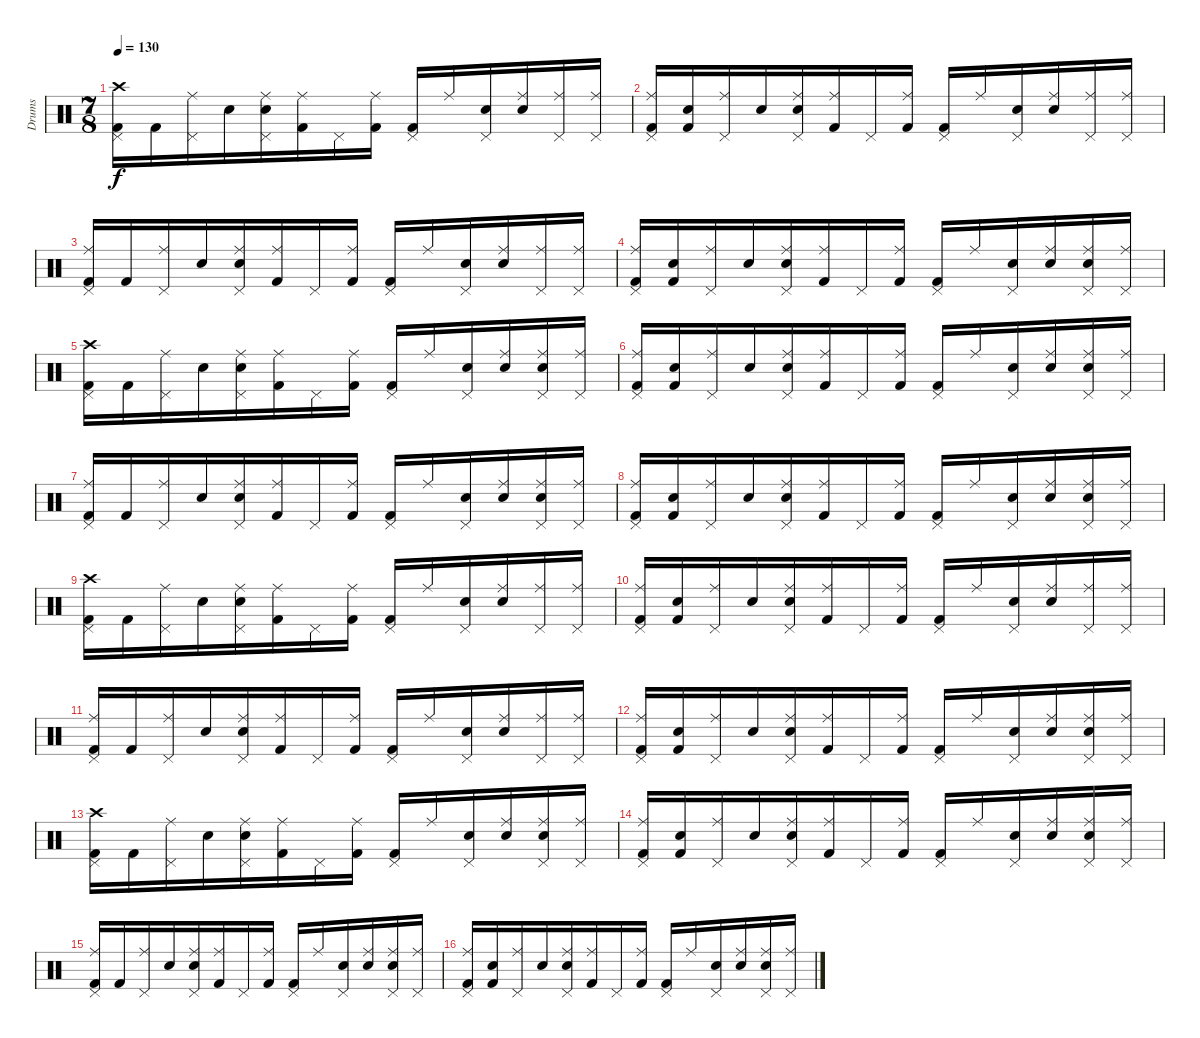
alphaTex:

\track ("Drums" "Drums") {instrument percussion}
\staff {score}
\articulation defaults
\ts (7 8)
\tempo 130
\clef neutral
\ks c
("Crash high (hit)" "Kick (hit) 2" "Pedal Hi-Hat (hit)").16{dy f} "Kick (hit) 2".16 ("Ride (middle)" "Pedal Hi-Hat (hit)").16 "Snare (hit) 2".16 ("Ride (middle)" "Electric Snare (hit)" "Pedal Hi-Hat (hit)").16 ("Ride (middle)" "Kick (hit) 2").16 "Pedal Hi-Hat (hit)".16 ("Ride (middle)" "Kick (hit) 2").16 ("Kick (hit) 2" "Pedal Hi-Hat (hit)").16 "Ride (middle)".16 ("Electric Snare (hit)" "Pedal Hi-Hat (hit)").16 ("Ride (middle)" "Electric Snare (hit)").16 ("Ride (middle)" "Pedal Hi-Hat (hit)").16 ("Ride (middle)" "Pedal Hi-Hat (hit)").16 |
("Ride (middle)" "Kick (hit) 2" "Pedal Hi-Hat (hit)").16 ("Electric Snare (hit)" "Kick (hit) 2").16 ("Ride (middle)" "Pedal Hi-Hat (hit)").16 "Snare (hit) 2".16 ("Ride (middle)" "Electric Snare (hit)" "Pedal Hi-Hat (hit)").16 ("Ride (middle)" "Kick (hit) 2").16 "Pedal Hi-Hat (hit)".16 ("Ride (middle)" "Kick (hit) 2").16 ("Kick (hit) 2" "Pedal Hi-Hat (hit)").16 "Ride (middle)".16 ("Electric Snare (hit)" "Pedal Hi-Hat (hit)").16 ("Ride (middle)" "Electric Snare (hit)").16 ("Ride (middle)" "Pedal Hi-Hat (hit)").16 ("Ride (middle)" "Pedal Hi-Hat (hit)").16 |
("Ride (middle)" "Kick (hit) 2" "Pedal Hi-Hat (hit)").16 "Kick (hit) 2".16 ("Ride (middle)" "Pedal Hi-Hat (hit)").16 "Snare (hit) 2".16 ("Ride (middle)" "Electric Snare (hit)" "Pedal Hi-Hat (hit)").16 ("Ride (middle)" "Kick (hit) 2").16 "Pedal Hi-Hat (hit)".16 ("Ride (middle)" "Kick (hit) 2").16 ("Kick (hit) 2" "Pedal Hi-Hat (hit)").16 "Ride (middle)".16 ("Electric Snare (hit)" "Pedal Hi-Hat (hit)").16 ("Ride (middle)" "Electric Snare (hit)").16 ("Ride (middle)" "Pedal Hi-Hat (hit)").16 ("Ride (middle)" "Pedal Hi-Hat (hit)").16 |
("Ride (middle)" "Kick (hit) 2" "Pedal Hi-Hat (hit)").16 ("Electric Snare (hit)" "Kick (hit) 2").16 ("Ride (middle)" "Pedal Hi-Hat (hit)").16 "Snare (hit) 2".16 ("Ride (middle)" "Electric Snare (hit)" "Pedal Hi-Hat (hit)").16 ("Ride (middle)" "Kick (hit) 2").16 "Pedal Hi-Hat (hit)".16 ("Ride (middle)" "Kick (hit) 2").16 ("Kick (hit) 2" "Pedal Hi-Hat (hit)").16 "Ride (middle)".16 ("Electric Snare (hit)" "Pedal Hi-Hat (hit)").16 ("Ride (middle)" "Electric Snare (hit)").16 ("Ride (middle)" "Snare (hit) 2" "Pedal Hi-Hat (hit)").16 ("Ride (middle)" "Pedal Hi-Hat (hit)").16 |
("Crash high (hit)" "Kick (hit) 2" "Pedal Hi-Hat (hit)").16 "Kick (hit) 2".16 ("Ride (middle)" "Pedal Hi-Hat (hit)").16 "Snare (hit) 2".16 ("Ride (middle)" "Electric Snare (hit)" "Pedal Hi-Hat (hit)").16 ("Ride (middle)" "Kick (hit) 2").16 "Pedal Hi-Hat (hit)".16 ("Ride (middle)" "Kick (hit) 2").16 ("Kick (hit) 2" "Pedal Hi-Hat (hit)").16 "Ride (middle)".16 ("Electric Snare (hit)" "Pedal Hi-Hat (hit)").16 ("Ride (middle)" "Electric Snare (hit)").16 ("Ride (middle)" "Snare (hit) 2" "Pedal Hi-Hat (hit)").16 ("Ride (middle)" "Pedal Hi-Hat (hit)").16 |
("Ride (middle)" "Kick (hit) 2" "Pedal Hi-Hat (hit)").16 ("Electric Snare (hit)" "Kick (hit) 2").16 ("Ride (middle)" "Pedal Hi-Hat (hit)").16 "Snare (hit) 2".16 ("Ride (middle)" "Electric Snare (hit)" "Pedal Hi-Hat (hit)").16 ("Ride (middle)" "Kick (hit) 2").16 "Pedal Hi-Hat (hit)".16 ("Ride (middle)" "Kick (hit) 2").16 ("Kick (hit) 2" "Pedal Hi-Hat (hit)").16 "Ride (middle)".16 ("Electric Snare (hit)" "Pedal Hi-Hat (hit)").16 ("Ride (middle)" "Electric Snare (hit)").16 ("Ride (middle)" "Snare (hit) 2" "Pedal Hi-Hat (hit)").16 ("Ride (middle)" "Pedal Hi-Hat (hit)").16 |
("Ride (middle)" "Kick (hit) 2" "Pedal Hi-Hat (hit)").16 "Kick (hit) 2".16 ("Ride (middle)" "Pedal Hi-Hat (hit)").16 "Snare (hit) 2".16 ("Ride (middle)" "Electric Snare (hit)" "Pedal Hi-Hat (hit)").16 ("Ride (middle)" "Kick (hit) 2").16 "Pedal Hi-Hat (hit)".16 ("Ride (middle)" "Kick (hit) 2").16 ("Kick (hit) 2" "Pedal Hi-Hat (hit)").16 "Ride (middle)".16 ("Electric Snare (hit)" "Pedal Hi-Hat (hit)").16 ("Ride (middle)" "Electric Snare (hit)").16 ("Ride (middle)" "Snare (hit) 2" "Pedal Hi-Hat (hit)").16 ("Ride (middle)" "Pedal Hi-Hat (hit)").16 |
("Ride (middle)" "Kick (hit) 2" "Pedal Hi-Hat (hit)").16 ("Electric Snare (hit)" "Kick (hit) 2").16 ("Ride (middle)" "Pedal Hi-Hat (hit)").16 "Snare (hit) 2".16 ("Ride (middle)" "Electric Snare (hit)" "Pedal Hi-Hat (hit)").16 ("Ride (middle)" "Kick (hit) 2").16 "Pedal Hi-Hat (hit)".16 ("Ride (middle)" "Kick (hit) 2").16 ("Kick (hit) 2" "Pedal Hi-Hat (hit)").16 "Ride (middle)".16 ("Electric Snare (hit)" "Pedal Hi-Hat (hit)").16 ("Ride (middle)" "Electric Snare (hit)").16 ("Ride (middle)" "Snare (hit) 2" "Pedal Hi-Hat (hit)").16 ("Ride (middle)" "Pedal Hi-Hat (hit)").16 |
("Crash high (hit)" "Kick (hit) 2" "Pedal Hi-Hat (hit)").16 "Kick (hit) 2".16 ("Ride (middle)" "Pedal Hi-Hat (hit)").16 "Snare (hit) 2".16 ("Ride (middle)" "Electric Snare (hit)" "Pedal Hi-Hat (hit)").16 ("Ride (middle)" "Kick (hit) 2").16 "Pedal Hi-Hat (hit)".16 ("Ride (middle)" "Kick (hit) 2").16 ("Kick (hit) 2" "Pedal Hi-Hat (hit)").16 "Ride (middle)".16 ("Electric Snare (hit)" "Pedal Hi-Hat (hit)").16 ("Ride (middle)" "Electric Snare (hit)").16 ("Ride (middle)" "Pedal Hi-Hat (hit)").16 ("Ride (middle)" "Pedal Hi-Hat (hit)").16 |
("Ride (middle)" "Kick (hit) 2" "Pedal Hi-Hat (hit)").16 ("Electric Snare (hit)" "Kick (hit) 2").16 ("Ride (middle)" "Pedal Hi-Hat (hit)").16 "Snare (hit) 2".16 ("Ride (middle)" "Electric Snare (hit)" "Pedal Hi-Hat (hit)").16 ("Ride (middle)" "Kick (hit) 2").16 "Pedal Hi-Hat (hit)".16 ("Ride (middle)" "Kick (hit) 2").16 ("Kick (hit) 2" "Pedal Hi-Hat (hit)").16 "Ride (middle)".16 ("Electric Snare (hit)" "Pedal Hi-Hat (hit)").16 ("Ride (middle)" "Electric Snare (hit)").16 ("Ride (middle)" "Pedal Hi-Hat (hit)").16 ("Ride (middle)" "Pedal Hi-Hat (hit)").16 |
("Ride (middle)" "Kick (hit) 2" "Pedal Hi-Hat (hit)").16 "Kick (hit) 2".16 ("Ride (middle)" "Pedal Hi-Hat (hit)").16 "Snare (hit) 2".16 ("Ride (middle)" "Electric Snare (hit)" "Pedal Hi-Hat (hit)").16 ("Ride (middle)" "Kick (hit) 2").16 "Pedal Hi-Hat (hit)".16 ("Ride (middle)" "Kick (hit) 2").16 ("Kick (hit) 2" "Pedal Hi-Hat (hit)").16 "Ride (middle)".16 ("Electric Snare (hit)" "Pedal Hi-Hat (hit)").16 ("Ride (middle)" "Electric Snare (hit)").16 ("Ride (middle)" "Pedal Hi-Hat (hit)").16 ("Ride (middle)" "Pedal Hi-Hat (hit)").16 |
("Ride (middle)" "Kick (hit) 2" "Pedal Hi-Hat (hit)").16 ("Electric Snare (hit)" "Kick (hit) 2").16 ("Ride (middle)" "Pedal Hi-Hat (hit)").16 "Snare (hit) 2".16 ("Ride (middle)" "Electric Snare (hit)" "Pedal Hi-Hat (hit)").16 ("Ride (middle)" "Kick (hit) 2").16 "Pedal Hi-Hat (hit)".16 ("Ride (middle)" "Kick (hit) 2").16 ("Kick (hit) 2" "Pedal Hi-Hat (hit)").16 "Ride (middle)".16 ("Electric Snare (hit)" "Pedal Hi-Hat (hit)").16 ("Ride (middle)" "Electric Snare (hit)").16 ("Ride (middle)" "Snare (hit) 2" "Pedal Hi-Hat (hit)").16 ("Ride (middle)" "Pedal Hi-Hat (hit)").16 |
("Crash high (hit)" "Kick (hit) 2" "Pedal Hi-Hat (hit)").16 "Kick (hit) 2".16 ("Ride (middle)" "Pedal Hi-Hat (hit)").16 "Snare (hit) 2".16 ("Ride (middle)" "Electric Snare (hit)" "Pedal Hi-Hat (hit)").16 ("Ride (middle)" "Kick (hit) 2").16 "Pedal Hi-Hat (hit)".16 ("Ride (middle)" "Kick (hit) 2").16 ("Kick (hit) 2" "Pedal Hi-Hat (hit)").16 "Ride (middle)".16 ("Electric Snare (hit)" "Pedal Hi-Hat (hit)").16 ("Ride (middle)" "Electric Snare (hit)").16 ("Ride (middle)" "Snare (hit) 2" "Pedal Hi-Hat (hit)").16 ("Ride (middle)" "Pedal Hi-Hat (hit)").16 |
("Ride (middle)" "Kick (hit) 2" "Pedal Hi-Hat (hit)").16 ("Electric Snare (hit)" "Kick (hit) 2").16 ("Ride (middle)" "Pedal Hi-Hat (hit)").16 "Snare (hit) 2".16 ("Ride (middle)" "Electric Snare (hit)" "Pedal Hi-Hat (hit)").16 ("Ride (middle)" "Kick (hit) 2").16 "Pedal Hi-Hat (hit)".16 ("Ride (middle)" "Kick (hit) 2").16 ("Kick (hit) 2" "Pedal Hi-Hat (hit)").16 "Ride (middle)".16 ("Electric Snare (hit)" "Pedal Hi-Hat (hit)").16 ("Ride (middle)" "Electric Snare (hit)").16 ("Ride (middle)" "Snare (hit) 2" "Pedal Hi-Hat (hit)").16 ("Ride (middle)" "Pedal Hi-Hat (hit)").16 |
("Ride (middle)" "Kick (hit) 2" "Pedal Hi-Hat (hit)").16 "Kick (hit) 2".16 ("Ride (middle)" "Pedal Hi-Hat (hit)").16 "Snare (hit) 2".16 ("Ride (middle)" "Electric Snare (hit)" "Pedal Hi-Hat (hit)").16 ("Ride (middle)" "Kick (hit) 2").16 "Pedal Hi-Hat (hit)".16 ("Ride (middle)" "Kick (hit) 2").16 ("Kick (hit) 2" "Pedal Hi-Hat (hit)").16 "Ride (middle)".16 ("Electric Snare (hit)" "Pedal Hi-Hat (hit)").16 ("Ride (middle)" "Electric Snare (hit)").16 ("Ride (middle)" "Snare (hit) 2" "Pedal Hi-Hat (hit)").16 ("Ride (middle)" "Pedal Hi-Hat (hit)").16 |
("Ride (middle)" "Kick (hit) 2" "Pedal Hi-Hat (hit)").16 ("Electric Snare (hit)" "Kick (hit) 2").16 ("Ride (middle)" "Pedal Hi-Hat (hit)").16 "Snare (hit) 2".16 ("Ride (middle)" "Electric Snare (hit)" "Pedal Hi-Hat (hit)").16 ("Ride (middle)" "Kick (hit) 2").16 "Pedal Hi-Hat (hit)".16 ("Ride (middle)" "Kick (hit) 2").16 ("Kick (hit) 2" "Pedal Hi-Hat (hit)").16 "Ride (middle)".16 ("Electric Snare (hit)" "Pedal Hi-Hat (hit)").16 ("Ride (middle)" "Electric Snare (hit)").16 ("Ride (middle)" "Snare (hit) 2" "Pedal Hi-Hat (hit)").16 ("Ride (middle)" "Pedal Hi-Hat (hit)").16
